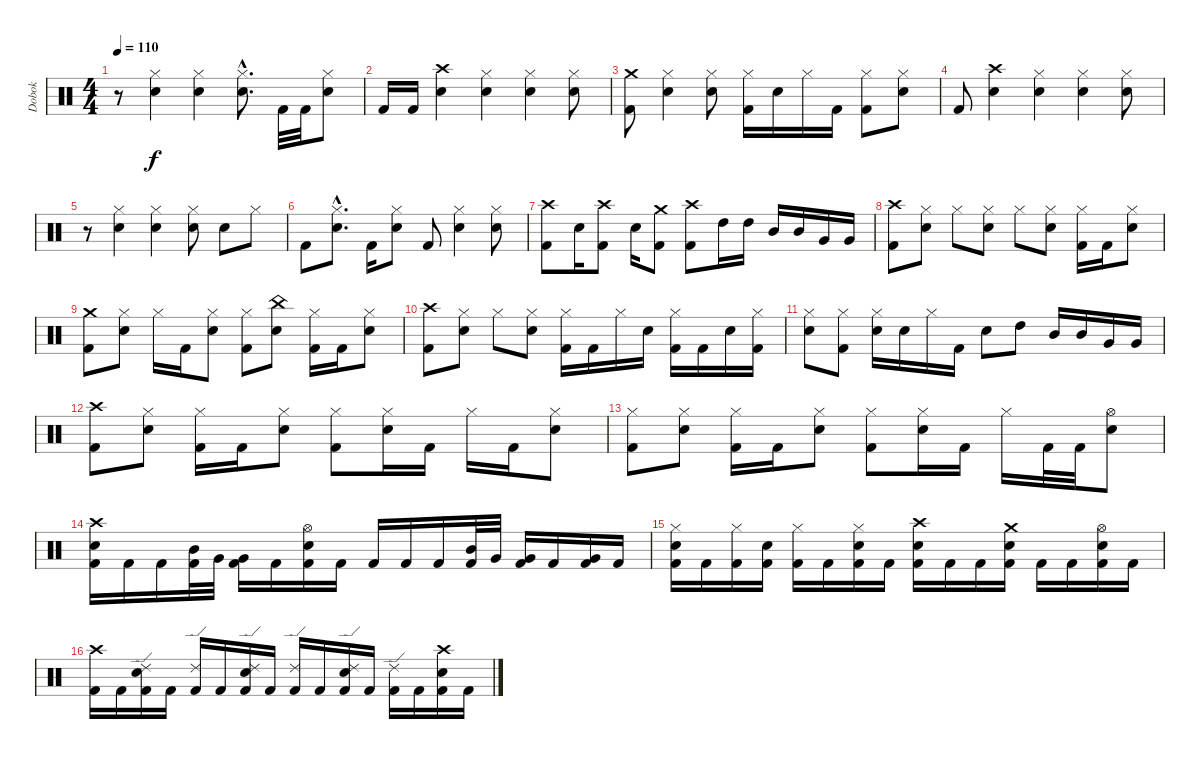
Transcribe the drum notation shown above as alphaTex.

\track ("Dobok" "Dobok") {instrument percussion}
\staff {score}
\articulation defaults
\ts (4 4)
\tempo 110
\clef neutral
\ks c
r.8{dy f} ("Hi-Hat (closed)" "Snare (hit) 2").4 ("Hi-Hat (closed)" "Snare (hit) 2").4 ("Hi-Hat (closed)"{hac} "Snare (hit) 2"{hac}).8{d} "Kick (hit) 2".32 "Kick (hit) 2".32 ("Hi-Hat (closed)" "Snare (hit) 2").8 |
"Kick (hit) 2".16 "Kick (hit) 2".16 ("Crash high (hit)" "Snare (hit) 2").4 ("Hi-Hat (closed)" "Snare (hit) 2").4 ("Hi-Hat (closed)" "Snare (hit) 2").4 ("Hi-Hat (closed)" "Snare (hit) 2").8 |
("Crash medium (hit)" "Kick (hit) 2").8 ("Hi-Hat (closed)" "Snare (hit) 2").4 ("Hi-Hat (closed)" "Snare (hit) 2").8 ("Hi-Hat (closed)" "Kick (hit) 2").16 "Snare (hit) 2".16 "Hi-Hat (closed)".16 "Kick (hit) 2".16 ("Hi-Hat (closed)" "Kick (hit) 2").8 ("Hi-Hat (closed)" "Snare (hit) 2").8 |
"Kick (hit) 2".8 ("Crash high (hit)" "Snare (hit) 2").4 ("Hi-Hat (closed)" "Snare (hit) 2").4 ("Hi-Hat (closed)" "Snare (hit) 2").4 ("Hi-Hat (closed)" "Snare (hit) 2").8 |
r.8 ("Hi-Hat (closed)" "Snare (hit) 2").4 ("Hi-Hat (closed)" "Snare (hit) 2").4 ("Hi-Hat (closed)" "Snare (hit) 2").8 "Snare (hit) 2".8 "Hi-Hat (closed)".8 |
"Kick (hit) 2".8 ("Hi-Hat (closed)"{hac} "Snare (hit) 2"{hac}).8{d} "Kick (hit) 2".16 ("Hi-Hat (closed)" "Snare (hit) 2").8 "Kick (hit) 2".8 ("Hi-Hat (closed)" "Snare (hit) 2").4 ("Hi-Hat (closed)" "Snare (hit) 2").8 |
("Crash high (hit)" "Kick (hit) 2").8 "Snare (hit) 2".16 ("Crash high (hit)" "Kick (hit) 2").8 "Snare (hit) 2".16 ("Crash medium (hit)" "Kick (hit) 2").8 ("Crash high (hit)" "Kick (hit) 2").8 "High Tom (hit)".16 "High Tom (hit)".16 "Mid Tom (hit)".16 "Mid Tom (hit)".16 "Very Low Tom (hit)".16 "Very Low Tom (hit)".16 |
("Crash high (hit)" "Kick (hit) 2").8 ("Hi-Hat (closed)" "Snare (hit) 2").8 "Hi-Hat (closed)".8 ("Hi-Hat (closed)" "Snare (hit) 2").8 "Hi-Hat (closed)".8 ("Hi-Hat (closed)" "Snare (hit) 2").8 ("Hi-Hat (closed)" "Kick (hit) 2").16 "Kick (hit) 2".16 ("Hi-Hat (closed)" "Snare (hit) 2").8 |
("Crash medium (hit)" "Kick (hit) 2").8 ("Hi-Hat (closed)" "Snare (hit) 2").8 "Hi-Hat (closed)".16 "Kick (hit) 2".16 ("Hi-Hat (closed)" "Snare (hit) 2").8 ("Hi-Hat (closed)" "Kick (hit) 2").8 ("China (hit)" "Snare (hit) 2").8 ("Hi-Hat (closed)" "Kick (hit) 2").16 "Kick (hit) 2".16 ("Hi-Hat (closed)" "Snare (hit) 2").8 |
("Crash high (hit)" "Kick (hit) 2").8 ("Hi-Hat (closed)" "Snare (hit) 2").8 "Hi-Hat (closed)".8 ("Hi-Hat (closed)" "Snare (hit) 2").8 ("Hi-Hat (closed)" "Kick (hit) 2").16 "Kick (hit) 2".16 "Hi-Hat (closed)".16 "Snare (hit) 2".16 ("Hi-Hat (closed)" "Kick (hit) 2").16 "Kick (hit) 2".16 "Snare (hit) 2".16 ("Hi-Hat (closed)" "Kick (hit) 2").16 |
("Hi-Hat (closed)" "Snare (hit) 2").8 ("Hi-Hat (closed)" "Kick (hit) 2").8 ("Hi-Hat (closed)" "Snare (hit) 2").16 "Snare (hit) 2".16 "Hi-Hat (closed)".16 "Kick (hit) 2".16 "Snare (hit) 2".8 "High Tom (hit)".8 "Mid Tom (hit)".16 "Mid Tom (hit)".16 "Very Low Tom (hit)".16 "Very Low Tom (hit)".16 |
("Crash high (hit)" "Kick (hit) 2").8 ("Hi-Hat (closed)" "Snare (hit) 2").8 ("Hi-Hat (closed)" "Kick (hit) 2").16 "Kick (hit) 2".16 ("Hi-Hat (closed)" "Snare (hit) 2").8 ("Hi-Hat (closed)" "Kick (hit) 2").8 ("Hi-Hat (closed)" "Snare (hit) 2").16 "Kick (hit) 2".16 "Hi-Hat (closed)".16 "Kick (hit) 2".16 ("Hi-Hat (closed)" "Snare (hit) 2").8 |
("Hi-Hat (closed)" "Kick (hit) 2").8 ("Hi-Hat (closed)" "Snare (hit) 2").8 ("Hi-Hat (closed)" "Kick (hit) 2").16 "Kick (hit) 2".16 ("Hi-Hat (closed)" "Snare (hit) 2").8 ("Hi-Hat (closed)" "Kick (hit) 2").8 ("Hi-Hat (closed)" "Snare (hit) 2").16 "Kick (hit) 2".16 "Hi-Hat (closed)".16 "Kick (hit) 2".32 "Kick (hit) 2".32 ("Hi-Hat (open)" "Snare (hit) 2").8 |
("Crash high (hit)" "Snare (hit) 2" "Kick (hit) 2").16 "Kick (hit) 2".16 "Kick (hit) 2".16 ("Mid Tom (hit)" "Kick (hit) 2").32 "Very Low Tom (hit)".32 ("Very Low Tom (hit)" "Kick (hit) 2").16 "Kick (hit) 2".16 ("Hi-Hat (open)" "Snare (hit) 2" "Kick (hit) 2").16 "Kick (hit) 2".16 "Kick (hit) 2".16 "Kick (hit) 2".16 "Kick (hit) 2".16 ("Mid Tom (hit)" "Kick (hit) 2").32 "Very Low Tom (hit)".32 ("Very Low Tom (hit)" "Kick (hit) 2").16 "Kick (hit) 2".16 ("Very Low Tom (hit)" "Kick (hit) 2").16 "Kick (hit) 2".16 |
("Hi-Hat (closed)" "Snare (hit) 2" "Kick (hit) 2").16 "Kick (hit) 2".16 ("Hi-Hat (closed)" "Kick (hit) 2").16 ("Snare (hit) 2" "Kick (hit) 2").16 ("Hi-Hat (closed)" "Kick (hit) 2").16 "Kick (hit) 2".16 ("Hi-Hat (closed)" "Snare (hit) 2" "Kick (hit) 2").16 "Kick (hit) 2".16 ("Crash high (hit)" "Snare (hit) 2" "Kick (hit) 2").16 "Kick (hit) 2".16 "Kick (hit) 2".16 ("Crash medium (hit)" "Snare (hit) 2" "Kick (hit) 2").16 "Kick (hit) 2".16 "Kick (hit) 2".16 ("Hi-Hat (open)" "Snare (hit) 2" "Kick (hit) 2").16 "Kick (hit) 2".16 |
("Crash high (hit)" "Kick (hit) 2").16 "Kick (hit) 2".16 ("Ride (edge) 2" "Snare (hit) 2" "Kick (hit) 2").16 "Kick (hit) 2".16 ("Ride (edge) 2" "Kick (hit) 2").16 "Kick (hit) 2".16 ("Ride (edge) 2" "Snare (hit) 2" "Kick (hit) 2").16 "Kick (hit) 2".16 ("Ride (edge) 2" "Kick (hit) 2").16 "Kick (hit) 2".16 ("Ride (edge) 2" "Snare (hit) 2" "Kick (hit) 2").16 "Kick (hit) 2".16 ("Ride (edge) 2" "Kick (hit) 2").16 "Kick (hit) 2".16 ("Crash high (hit)" "Snare (hit) 2" "Kick (hit) 2").16 "Kick (hit) 2".16
